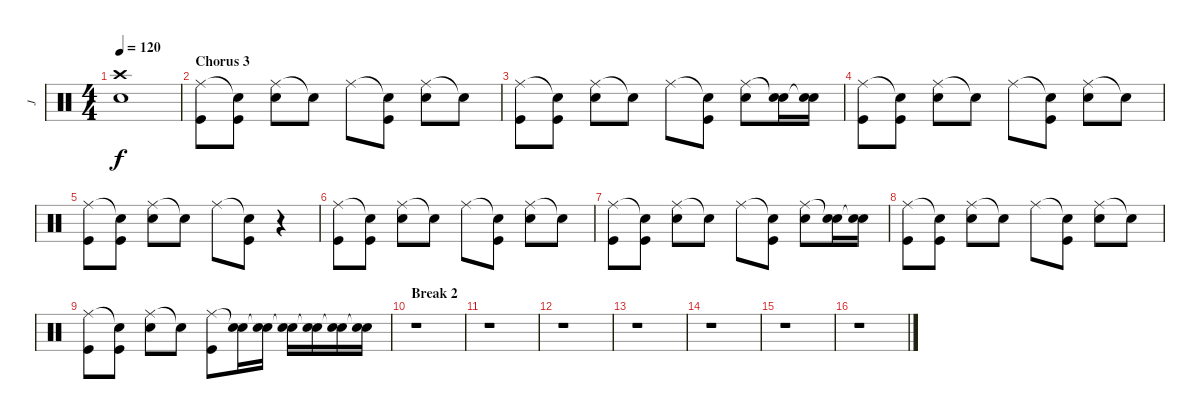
\track ("J" "J") {instrument percussion}
\staff {score}
\articulation defaults
\ts (4 4)
\tempo 120
\clef neutral
\ks c
("Crash high (hit)" "Electric Snare (hit)").1{dy f} |
\section ("" "Chorus 3")
("Ride (middle)" "Kick (hit)").8 ("Snare (hit)"{t} "Kick (hit)").8 ("Ride (middle)" "Electric Snare (hit)").8 "Snare (hit)"{t}.8 "Ride (middle)".8 ("Snare (hit)"{t} "Kick (hit)").8 ("Ride (middle)" "Electric Snare (hit)").8 "Snare (hit)"{t}.8 |
("Ride (middle)" "Kick (hit)").8 ("Snare (hit)"{t} "Kick (hit)").8 ("Ride (middle)" "Electric Snare (hit)").8 "Snare (hit)"{t}.8 "Ride (middle)".8 ("Snare (hit)"{t} "Kick (hit)").8 ("Ride (middle)" "Electric Snare (hit)").8 ("Snare (hit)"{t} "Electric Snare (hit)").16 ("Snare (hit)"{t} "Electric Snare (hit)").16 |
("Ride (middle)" "Kick (hit)").8 ("Snare (hit)"{t} "Kick (hit)").8 ("Ride (middle)" "Electric Snare (hit)").8 "Snare (hit)"{t}.8 "Ride (middle)".8 ("Snare (hit)"{t} "Kick (hit)").8 ("Ride (middle)" "Electric Snare (hit)").8 "Snare (hit)"{t}.8 |
("Ride (middle)" "Kick (hit)").8 ("Snare (hit)"{t} "Kick (hit)").8 ("Ride (middle)" "Electric Snare (hit)").8 "Snare (hit)"{t}.8 "Ride (middle)".8 ("Snare (hit)"{t} "Kick (hit)").8 r.4 |
("Ride (middle)" "Kick (hit)").8 ("Snare (hit)"{t} "Kick (hit)").8 ("Ride (middle)" "Electric Snare (hit)").8 "Snare (hit)"{t}.8 "Ride (middle)".8 ("Snare (hit)"{t} "Kick (hit)").8 ("Ride (middle)" "Electric Snare (hit)").8 "Snare (hit)"{t}.8 |
("Ride (middle)" "Kick (hit)").8 ("Snare (hit)"{t} "Kick (hit)").8 ("Ride (middle)" "Electric Snare (hit)").8 "Snare (hit)"{t}.8 "Ride (middle)".8 ("Snare (hit)"{t} "Kick (hit)").8 ("Ride (middle)" "Electric Snare (hit)").8 ("Snare (hit)"{t} "Electric Snare (hit)").16 ("Snare (hit)"{t} "Electric Snare (hit)").16 |
("Ride (middle)" "Kick (hit)").8 ("Snare (hit)"{t} "Kick (hit)").8 ("Ride (middle)" "Electric Snare (hit)").8 "Snare (hit)"{t}.8 "Ride (middle)".8 ("Snare (hit)"{t} "Kick (hit)").8 ("Ride (middle)" "Electric Snare (hit)").8 "Snare (hit)"{t}.8 |
("Ride (middle)" "Kick (hit)").8 ("Snare (hit)"{t} "Kick (hit)").8 ("Ride (middle)" "Electric Snare (hit)").8 "Snare (hit)"{t}.8 ("Ride (middle)" "Kick (hit)").8 ("Snare (hit)"{t} "Electric Snare (hit)").16 ("Snare (hit)"{t} "Electric Snare (hit)").16 ("Snare (hit)"{t} "Electric Snare (hit)").16 ("Snare (hit)"{t} "Electric Snare (hit)").16 ("Snare (hit)"{t} "Electric Snare (hit)").16 ("Snare (hit)"{t} "Electric Snare (hit)").16 |
\section ("" "Break 2")
r.1 |
r.1 |
r.1 |
r.1 |
r.1 |
r.1 |
r.1
